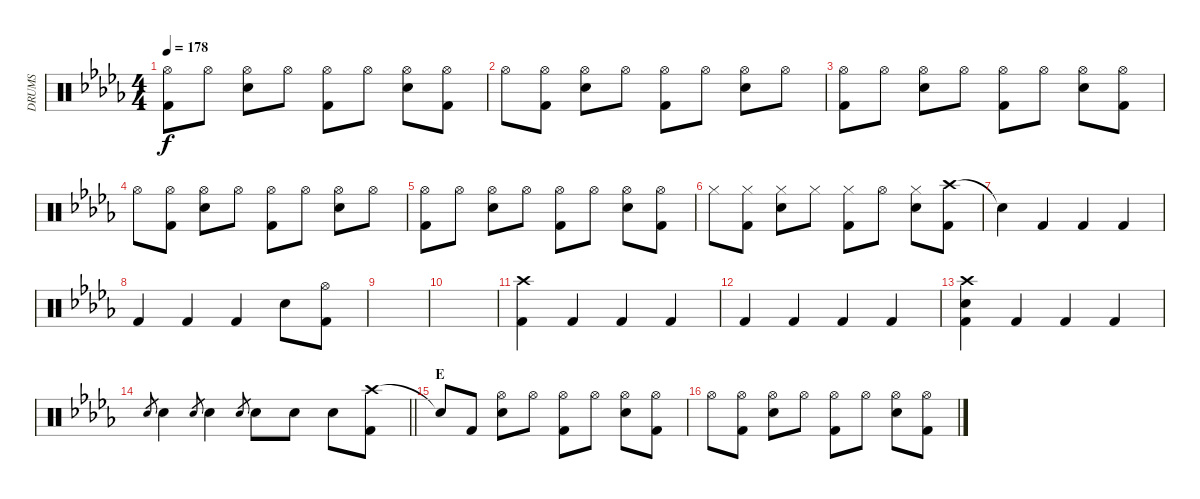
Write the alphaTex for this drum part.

\track ("DRUMS" "DRUMS") {instrument percussion}
\staff {score}
\articulation defaults
\ts (4 4)
\tempo 178
\clef neutral
\ks db
("Hi-Hat (open)" "Kick (hit) 2").8{dy f} "Hi-Hat (open)".8 ("Hi-Hat (open)" "Snare (hit) 2").8 "Hi-Hat (open)".8 ("Hi-Hat (open)" "Kick (hit) 2").8 "Hi-Hat (open)".8 ("Hi-Hat (open)" "Snare (hit) 2").8 ("Hi-Hat (open)" "Kick (hit) 2").8 |
"Hi-Hat (open)".8 ("Hi-Hat (open)" "Kick (hit) 2").8 ("Hi-Hat (open)" "Snare (hit) 2").8 "Hi-Hat (open)".8 ("Hi-Hat (open)" "Kick (hit) 2").8 "Hi-Hat (open)".8 ("Hi-Hat (open)" "Snare (hit) 2").8 "Hi-Hat (open)".8 |
("Hi-Hat (open)" "Kick (hit) 2").8 "Hi-Hat (open)".8 ("Hi-Hat (open)" "Snare (hit) 2").8 "Hi-Hat (open)".8 ("Hi-Hat (open)" "Kick (hit) 2").8 "Hi-Hat (open)".8 ("Hi-Hat (open)" "Snare (hit) 2").8 ("Hi-Hat (open)" "Kick (hit) 2").8 |
"Hi-Hat (open)".8 ("Hi-Hat (open)" "Kick (hit) 2").8 ("Hi-Hat (open)" "Snare (hit) 2").8 "Hi-Hat (open)".8 ("Hi-Hat (open)" "Kick (hit) 2").8 "Hi-Hat (open)".8 ("Hi-Hat (open)" "Snare (hit) 2").8 "Hi-Hat (open)".8 |
("Hi-Hat (open)" "Kick (hit) 2").8 "Hi-Hat (open)".8 ("Hi-Hat (open)" "Snare (hit) 2").8 "Hi-Hat (open)".8 ("Hi-Hat (open)" "Kick (hit) 2").8 "Hi-Hat (open)".8 ("Hi-Hat (open)" "Snare (hit) 2").8 ("Hi-Hat (open)" "Kick (hit) 2").8 |
"Hi-Hat (closed)".8 ("Hi-Hat (closed)" "Kick (hit) 2").8 ("Hi-Hat (closed)" "Snare (hit) 2").8 "Hi-Hat (closed)".8 ("Hi-Hat (closed)" "Kick (hit) 2").8 "Hi-Hat (open)".8 ("Hi-Hat (closed)" "Snare (hit) 2").8 ("Crash high (hit)" "Kick (hit) 2").8 |
"Snare (hit)"{t}.4 "Kick (hit) 2".4 "Kick (hit) 2".4 "Kick (hit) 2".4 |
"Kick (hit) 2".4 "Kick (hit) 2".4 "Kick (hit) 2".4 "Snare (hit) 2".8 ("Hi-Hat (open)" "Kick (hit) 2").8 |
|
|
("Crash high (hit)" "Kick (hit) 2").4 "Kick (hit) 2".4 "Kick (hit) 2".4 "Kick (hit) 2".4 |
"Kick (hit) 2".4 "Kick (hit) 2".4 "Kick (hit) 2".4 "Kick (hit) 2".4 |
("Crash high (hit)" "Kick (hit) 2" "Snare (hit) 2").4 "Kick (hit) 2".4 "Kick (hit) 2".4 "Kick (hit) 2".4 |
\barLineRight lightlight "Snare (hit) 2".8{gr} "Snare (hit) 2".4 "Snare (hit) 2".8{gr} "Snare (hit) 2".4 "Snare (hit) 2".8{gr} "Snare (hit) 2".8 "Snare (hit) 2".8 "Snare (hit) 2".8
("Crash high (hit)" "Kick (hit) 2").8 |
\section ("" "E")
"Snare (hit)"{t}.8 "Kick (hit) 2".8 ("Hi-Hat (open)" "Snare (hit) 2").8 "Hi-Hat (open)".8 ("Hi-Hat (open)" "Kick (hit) 2").8 "Hi-Hat (open)".8 ("Hi-Hat (open)" "Snare (hit) 2").8 ("Hi-Hat (open)" "Kick (hit) 2").8 |
"Hi-Hat (open)".8 ("Hi-Hat (open)" "Kick (hit) 2").8 ("Hi-Hat (open)" "Snare (hit) 2").8 "Hi-Hat (open)".8 ("Hi-Hat (open)" "Kick (hit) 2").8 "Hi-Hat (open)".8 ("Hi-Hat (open)" "Snare (hit) 2").8 ("Hi-Hat (open)" "Kick (hit) 2").8
